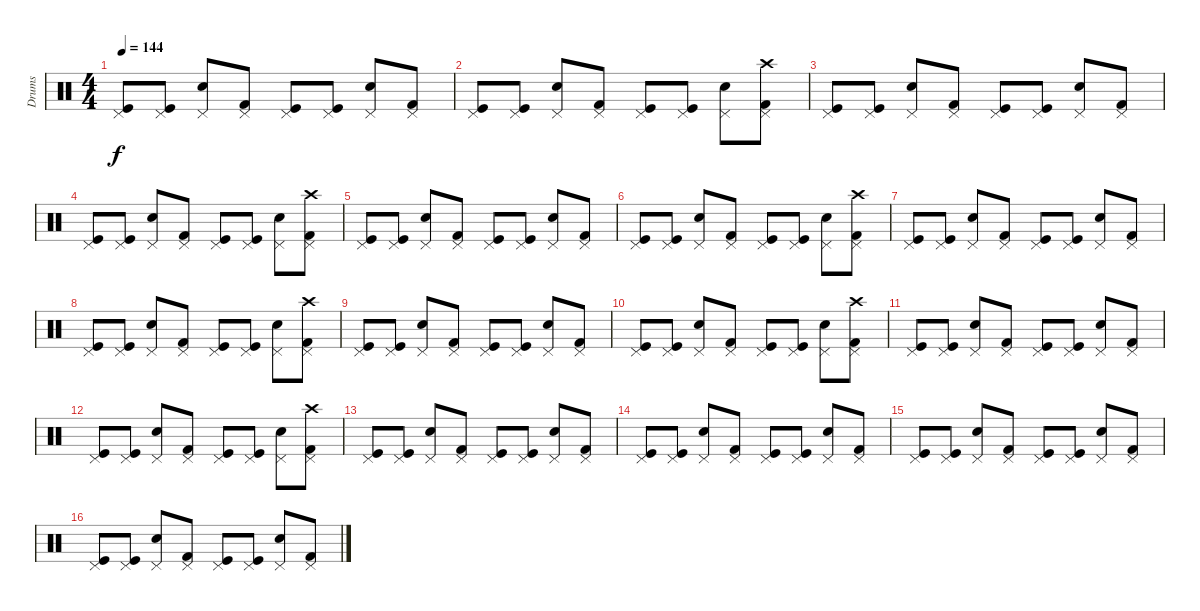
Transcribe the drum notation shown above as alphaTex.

\track ("Drums" "Drums") {instrument percussion}
\staff {score}
\articulation defaults
\ts (4 4)
\tempo 144
\clef neutral
\ks c
("Pedal Hi-Hat (hit)" "Kick (hit)").8{dy f} ("Pedal Hi-Hat (hit)" "Kick (hit)").8 ("Pedal Hi-Hat (hit)" "Snare (hit) 2").8 ("Pedal Hi-Hat (hit)" "Kick (hit) 2").8 ("Pedal Hi-Hat (hit)" "Kick (hit)").8 ("Pedal Hi-Hat (hit)" "Kick (hit)").8 ("Pedal Hi-Hat (hit)" "Snare (hit) 2").8 ("Pedal Hi-Hat (hit)" "Kick (hit) 2").8 |
("Pedal Hi-Hat (hit)" "Kick (hit)").8 ("Pedal Hi-Hat (hit)" "Kick (hit)").8 ("Pedal Hi-Hat (hit)" "Snare (hit) 2").8 ("Pedal Hi-Hat (hit)" "Kick (hit) 2").8 ("Pedal Hi-Hat (hit)" "Kick (hit)").8 ("Pedal Hi-Hat (hit)" "Kick (hit)").8 ("Pedal Hi-Hat (hit)" "Snare (hit) 2").8 ("Pedal Hi-Hat (hit)" "Kick (hit) 2" "Crash high (hit)").8 |
("Pedal Hi-Hat (hit)" "Kick (hit)").8 ("Pedal Hi-Hat (hit)" "Kick (hit)").8 ("Pedal Hi-Hat (hit)" "Snare (hit) 2").8 ("Pedal Hi-Hat (hit)" "Kick (hit) 2").8 ("Pedal Hi-Hat (hit)" "Kick (hit)").8 ("Pedal Hi-Hat (hit)" "Kick (hit)").8 ("Pedal Hi-Hat (hit)" "Snare (hit) 2").8 ("Pedal Hi-Hat (hit)" "Kick (hit) 2").8 |
("Pedal Hi-Hat (hit)" "Kick (hit)").8 ("Pedal Hi-Hat (hit)" "Kick (hit)").8 ("Pedal Hi-Hat (hit)" "Snare (hit) 2").8 ("Pedal Hi-Hat (hit)" "Kick (hit) 2").8 ("Pedal Hi-Hat (hit)" "Kick (hit)").8 ("Pedal Hi-Hat (hit)" "Kick (hit)").8 ("Pedal Hi-Hat (hit)" "Snare (hit) 2").8 ("Pedal Hi-Hat (hit)" "Kick (hit) 2" "Crash high (hit)").8 |
("Pedal Hi-Hat (hit)" "Kick (hit)").8 ("Pedal Hi-Hat (hit)" "Kick (hit)").8 ("Pedal Hi-Hat (hit)" "Snare (hit) 2").8 ("Pedal Hi-Hat (hit)" "Kick (hit) 2").8 ("Pedal Hi-Hat (hit)" "Kick (hit)").8 ("Pedal Hi-Hat (hit)" "Kick (hit)").8 ("Pedal Hi-Hat (hit)" "Snare (hit) 2").8 ("Pedal Hi-Hat (hit)" "Kick (hit) 2").8 |
("Pedal Hi-Hat (hit)" "Kick (hit)").8 ("Pedal Hi-Hat (hit)" "Kick (hit)").8 ("Pedal Hi-Hat (hit)" "Snare (hit) 2").8 ("Pedal Hi-Hat (hit)" "Kick (hit) 2").8 ("Pedal Hi-Hat (hit)" "Kick (hit)").8 ("Pedal Hi-Hat (hit)" "Kick (hit)").8 ("Pedal Hi-Hat (hit)" "Snare (hit) 2").8 ("Pedal Hi-Hat (hit)" "Kick (hit) 2" "Crash high (hit)").8 |
("Pedal Hi-Hat (hit)" "Kick (hit)").8 ("Pedal Hi-Hat (hit)" "Kick (hit)").8 ("Pedal Hi-Hat (hit)" "Snare (hit) 2").8 ("Pedal Hi-Hat (hit)" "Kick (hit) 2").8 ("Pedal Hi-Hat (hit)" "Kick (hit)").8 ("Pedal Hi-Hat (hit)" "Kick (hit)").8 ("Pedal Hi-Hat (hit)" "Snare (hit) 2").8 ("Pedal Hi-Hat (hit)" "Kick (hit) 2").8 |
("Pedal Hi-Hat (hit)" "Kick (hit)").8 ("Pedal Hi-Hat (hit)" "Kick (hit)").8 ("Pedal Hi-Hat (hit)" "Snare (hit) 2").8 ("Pedal Hi-Hat (hit)" "Kick (hit) 2").8 ("Pedal Hi-Hat (hit)" "Kick (hit)").8 ("Pedal Hi-Hat (hit)" "Kick (hit)").8 ("Pedal Hi-Hat (hit)" "Snare (hit) 2").8 ("Pedal Hi-Hat (hit)" "Kick (hit) 2" "Crash high (hit)").8 |
("Pedal Hi-Hat (hit)" "Kick (hit)").8 ("Pedal Hi-Hat (hit)" "Kick (hit)").8 ("Pedal Hi-Hat (hit)" "Snare (hit) 2").8 ("Pedal Hi-Hat (hit)" "Kick (hit) 2").8 ("Pedal Hi-Hat (hit)" "Kick (hit)").8 ("Pedal Hi-Hat (hit)" "Kick (hit)").8 ("Pedal Hi-Hat (hit)" "Snare (hit) 2").8 ("Pedal Hi-Hat (hit)" "Kick (hit) 2").8 |
("Pedal Hi-Hat (hit)" "Kick (hit)").8 ("Pedal Hi-Hat (hit)" "Kick (hit)").8 ("Pedal Hi-Hat (hit)" "Snare (hit) 2").8 ("Pedal Hi-Hat (hit)" "Kick (hit) 2").8 ("Pedal Hi-Hat (hit)" "Kick (hit)").8 ("Pedal Hi-Hat (hit)" "Kick (hit)").8 ("Pedal Hi-Hat (hit)" "Snare (hit) 2").8 ("Pedal Hi-Hat (hit)" "Kick (hit) 2" "Crash high (hit)").8 |
("Pedal Hi-Hat (hit)" "Kick (hit)").8 ("Pedal Hi-Hat (hit)" "Kick (hit)").8 ("Pedal Hi-Hat (hit)" "Snare (hit) 2").8 ("Pedal Hi-Hat (hit)" "Kick (hit) 2").8 ("Pedal Hi-Hat (hit)" "Kick (hit)").8 ("Pedal Hi-Hat (hit)" "Kick (hit)").8 ("Pedal Hi-Hat (hit)" "Snare (hit) 2").8 ("Pedal Hi-Hat (hit)" "Kick (hit) 2").8 |
("Pedal Hi-Hat (hit)" "Kick (hit)").8 ("Pedal Hi-Hat (hit)" "Kick (hit)").8 ("Pedal Hi-Hat (hit)" "Snare (hit) 2").8 ("Pedal Hi-Hat (hit)" "Kick (hit) 2").8 ("Pedal Hi-Hat (hit)" "Kick (hit)").8 ("Pedal Hi-Hat (hit)" "Kick (hit)").8 ("Pedal Hi-Hat (hit)" "Snare (hit) 2").8 ("Pedal Hi-Hat (hit)" "Kick (hit) 2" "Crash high (hit)").8 |
("Pedal Hi-Hat (hit)" "Kick (hit)").8 ("Pedal Hi-Hat (hit)" "Kick (hit)").8 ("Pedal Hi-Hat (hit)" "Snare (hit) 2").8 ("Pedal Hi-Hat (hit)" "Kick (hit) 2").8 ("Pedal Hi-Hat (hit)" "Kick (hit)").8 ("Pedal Hi-Hat (hit)" "Kick (hit)").8 ("Pedal Hi-Hat (hit)" "Snare (hit) 2").8 ("Pedal Hi-Hat (hit)" "Kick (hit) 2").8 |
("Pedal Hi-Hat (hit)" "Kick (hit)").8 ("Pedal Hi-Hat (hit)" "Kick (hit)").8 ("Pedal Hi-Hat (hit)" "Snare (hit) 2").8 ("Pedal Hi-Hat (hit)" "Kick (hit) 2").8 ("Pedal Hi-Hat (hit)" "Kick (hit)").8 ("Pedal Hi-Hat (hit)" "Kick (hit)").8 ("Pedal Hi-Hat (hit)" "Snare (hit) 2").8 ("Pedal Hi-Hat (hit)" "Kick (hit) 2").8 |
("Pedal Hi-Hat (hit)" "Kick (hit)").8 ("Pedal Hi-Hat (hit)" "Kick (hit)").8 ("Pedal Hi-Hat (hit)" "Snare (hit) 2").8 ("Pedal Hi-Hat (hit)" "Kick (hit) 2").8 ("Pedal Hi-Hat (hit)" "Kick (hit)").8 ("Pedal Hi-Hat (hit)" "Kick (hit)").8 ("Pedal Hi-Hat (hit)" "Snare (hit) 2").8 ("Pedal Hi-Hat (hit)" "Kick (hit) 2").8 |
("Pedal Hi-Hat (hit)" "Kick (hit)").8 ("Pedal Hi-Hat (hit)" "Kick (hit)").8 ("Pedal Hi-Hat (hit)" "Snare (hit) 2").8 ("Pedal Hi-Hat (hit)" "Kick (hit) 2").8 ("Pedal Hi-Hat (hit)" "Kick (hit)").8 ("Pedal Hi-Hat (hit)" "Kick (hit)").8 ("Pedal Hi-Hat (hit)" "Snare (hit) 2").8 ("Pedal Hi-Hat (hit)" "Kick (hit) 2").8
